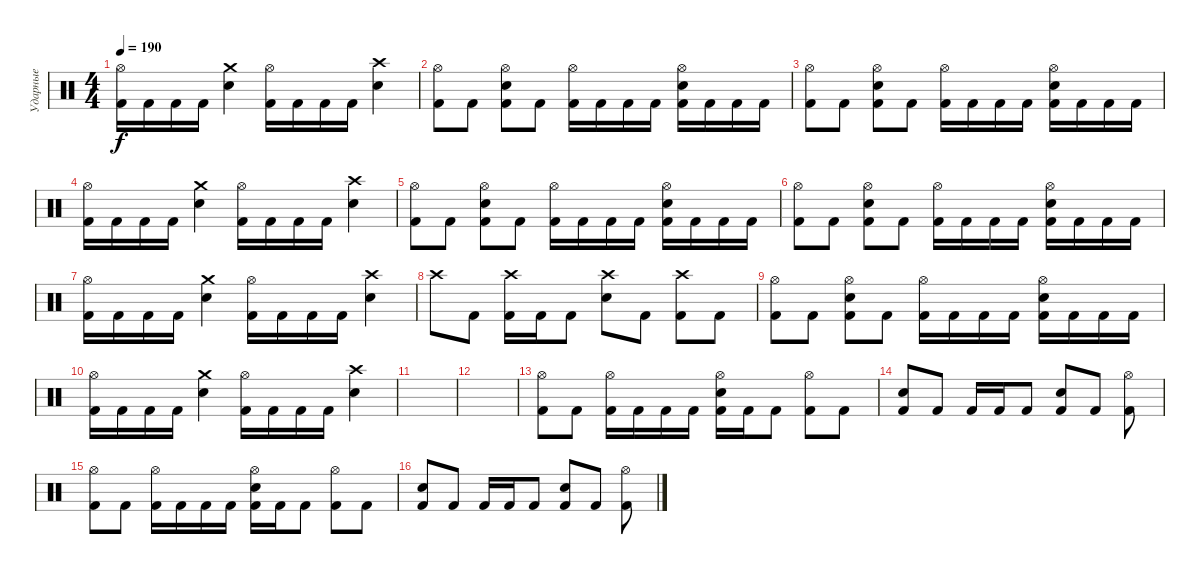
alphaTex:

\track ("Ударные" "Ударные") {instrument percussion}
\staff {score}
\articulation defaults
\ts (4 4)
\tempo 190
\clef neutral
\ks c
("Hi-Hat (open)" "Kick (hit) 2").16{dy f} "Kick (hit) 2".16 "Kick (hit) 2".16 "Kick (hit) 2".16 ("Crash medium (hit)" "Electric Snare (hit)").4 ("Hi-Hat (open)" "Kick (hit) 2").16 "Kick (hit) 2".16 "Kick (hit) 2".16 "Kick (hit) 2".16 ("Crash high (hit)" "Electric Snare (hit)").4 |
("Hi-Hat (open)" "Kick (hit) 2").8 "Kick (hit) 2".8 ("Hi-Hat (open)" "Electric Snare (hit)" "Kick (hit) 2").8 "Kick (hit) 2".8 ("Hi-Hat (open)" "Kick (hit) 2").16 "Kick (hit) 2".16 "Kick (hit) 2".16 "Kick (hit) 2".16 ("Hi-Hat (open)" "Electric Snare (hit)" "Kick (hit) 2").16 "Kick (hit) 2".16 "Kick (hit) 2".16 "Kick (hit) 2".16 |
("Hi-Hat (open)" "Kick (hit) 2").8 "Kick (hit) 2".8 ("Hi-Hat (open)" "Electric Snare (hit)" "Kick (hit) 2").8 "Kick (hit) 2".8 ("Hi-Hat (open)" "Kick (hit) 2").16 "Kick (hit) 2".16 "Kick (hit) 2".16 "Kick (hit) 2".16 ("Hi-Hat (open)" "Electric Snare (hit)" "Kick (hit) 2").16 "Kick (hit) 2".16 "Kick (hit) 2".16 "Kick (hit) 2".16 |
("Hi-Hat (open)" "Kick (hit) 2").16 "Kick (hit) 2".16 "Kick (hit) 2".16 "Kick (hit) 2".16 ("Crash medium (hit)" "Electric Snare (hit)").4 ("Hi-Hat (open)" "Kick (hit) 2").16 "Kick (hit) 2".16 "Kick (hit) 2".16 "Kick (hit) 2".16 ("Crash high (hit)" "Electric Snare (hit)").4 |
("Hi-Hat (open)" "Kick (hit) 2").8 "Kick (hit) 2".8 ("Hi-Hat (open)" "Electric Snare (hit)" "Kick (hit) 2").8 "Kick (hit) 2".8 ("Hi-Hat (open)" "Kick (hit) 2").16 "Kick (hit) 2".16 "Kick (hit) 2".16 "Kick (hit) 2".16 ("Hi-Hat (open)" "Electric Snare (hit)" "Kick (hit) 2").16 "Kick (hit) 2".16 "Kick (hit) 2".16 "Kick (hit) 2".16 |
("Hi-Hat (open)" "Kick (hit) 2").8 "Kick (hit) 2".8 ("Hi-Hat (open)" "Electric Snare (hit)" "Kick (hit) 2").8 "Kick (hit) 2".8 ("Hi-Hat (open)" "Kick (hit) 2").16 "Kick (hit) 2".16 "Kick (hit) 2".16 "Kick (hit) 2".16 ("Hi-Hat (open)" "Electric Snare (hit)" "Kick (hit) 2").16 "Kick (hit) 2".16 "Kick (hit) 2".16 "Kick (hit) 2".16 |
("Hi-Hat (open)" "Kick (hit) 2").16 "Kick (hit) 2".16 "Kick (hit) 2".16 "Kick (hit) 2".16 ("Crash medium (hit)" "Electric Snare (hit)").4 ("Hi-Hat (open)" "Kick (hit) 2").16 "Kick (hit) 2".16 "Kick (hit) 2".16 "Kick (hit) 2".16 ("Crash high (hit)" "Electric Snare (hit)").4 |
"Crash high (hit)".8 "Kick (hit) 2".8 ("Crash high (hit)" "Kick (hit) 2").16 "Kick (hit) 2".16 "Kick (hit) 2".8 ("Crash high (hit)" "Electric Snare (hit)").8 "Kick (hit) 2".8 ("Crash high (hit)" "Kick (hit) 2").8 "Kick (hit) 2".8 |
("Hi-Hat (open)" "Kick (hit) 2").8 "Kick (hit) 2".8 ("Hi-Hat (open)" "Electric Snare (hit)" "Kick (hit) 2").8 "Kick (hit) 2".8 ("Hi-Hat (open)" "Kick (hit) 2").16 "Kick (hit) 2".16 "Kick (hit) 2".16 "Kick (hit) 2".16 ("Hi-Hat (open)" "Electric Snare (hit)" "Kick (hit) 2").16 "Kick (hit) 2".16 "Kick (hit) 2".16 "Kick (hit) 2".16 |
("Hi-Hat (open)" "Kick (hit) 2").16 "Kick (hit) 2".16 "Kick (hit) 2".16 "Kick (hit) 2".16 ("Crash medium (hit)" "Electric Snare (hit)").4 ("Hi-Hat (open)" "Kick (hit) 2").16 "Kick (hit) 2".16 "Kick (hit) 2".16 "Kick (hit) 2".16 ("Crash high (hit)" "Electric Snare (hit)").4 |
|
|
("Kick (hit) 2" "Hi-Hat (open)").8 "Kick (hit) 2".8 ("Hi-Hat (open)" "Kick (hit) 2").16 "Kick (hit) 2".16 "Kick (hit) 2".16 "Kick (hit) 2".16 ("Hi-Hat (open)" "Electric Snare (hit)" "Kick (hit) 2").16 "Kick (hit) 2".16 "Kick (hit) 2".8 ("Hi-Hat (open)" "Kick (hit) 2").8 "Kick (hit) 2".8 |
("Kick (hit) 2" "Snare (hit) 2").8 "Kick (hit) 2".8 "Kick (hit) 2".16 "Kick (hit) 2".16 "Kick (hit) 2".8 ("Kick (hit) 2" "Snare (hit) 2").8 "Kick (hit) 2".8 ("Kick (hit) 2" "Hi-Hat (open)").8 |
("Kick (hit) 2" "Hi-Hat (open)").8 "Kick (hit) 2".8 ("Hi-Hat (open)" "Kick (hit) 2").16 "Kick (hit) 2".16 "Kick (hit) 2".16 "Kick (hit) 2".16 ("Hi-Hat (open)" "Electric Snare (hit)" "Kick (hit) 2").16 "Kick (hit) 2".16 "Kick (hit) 2".8 ("Hi-Hat (open)" "Kick (hit) 2").8 "Kick (hit) 2".8 |
("Kick (hit) 2" "Snare (hit) 2").8 "Kick (hit) 2".8 "Kick (hit) 2".16 "Kick (hit) 2".16 "Kick (hit) 2".8 ("Kick (hit) 2" "Snare (hit) 2").8 "Kick (hit) 2".8 ("Kick (hit) 2" "Hi-Hat (open)").8
